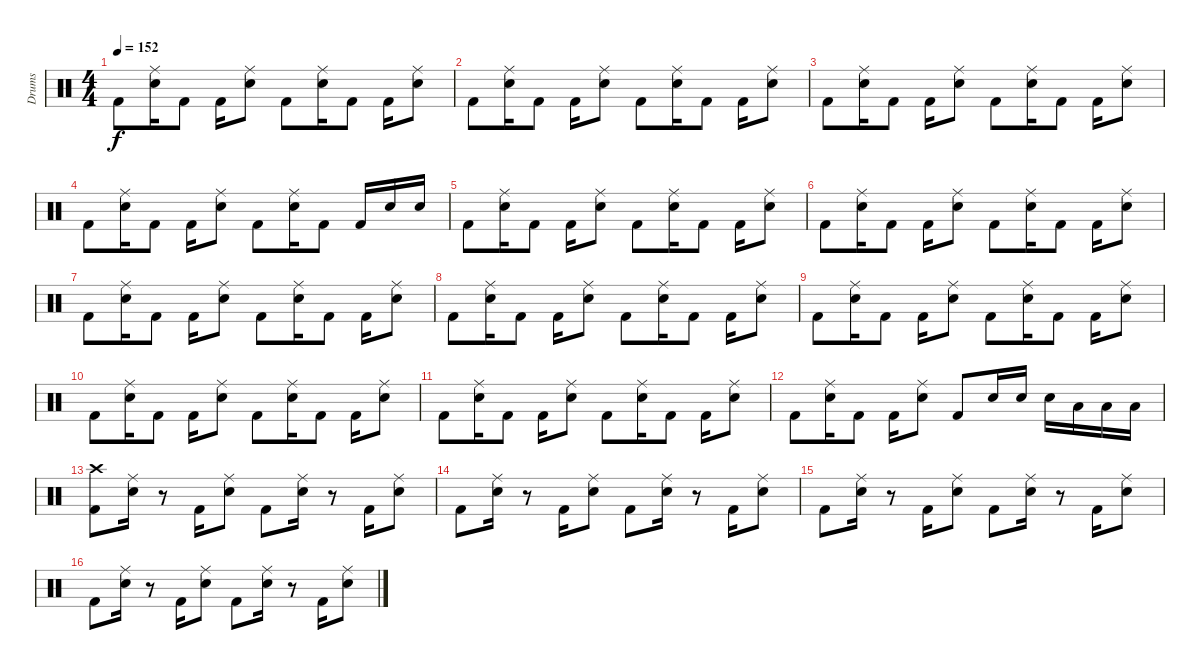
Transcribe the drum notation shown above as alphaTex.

\track ("Drums" "Drums") {instrument percussion}
\staff {score}
\articulation defaults
\ts (4 4)
\tempo 152
\clef neutral
\ks c "Kick (hit) 2".8{dy f}
("Ride (middle)" "Snare (hit) 2").16 "Kick (hit) 2".8 "Kick (hit) 2".16 ("Ride (middle)" "Snare (hit) 2").8 "Kick (hit) 2".8 ("Ride (middle)" "Snare (hit) 2").16 "Kick (hit) 2".8 "Kick (hit) 2".16 ("Ride (middle)" "Snare (hit) 2").8 |
"Kick (hit) 2".8 ("Ride (middle)" "Snare (hit) 2").16 "Kick (hit) 2".8 "Kick (hit) 2".16 ("Ride (middle)" "Snare (hit) 2").8 "Kick (hit) 2".8 ("Ride (middle)" "Snare (hit) 2").16 "Kick (hit) 2".8 "Kick (hit) 2".16 ("Ride (middle)" "Snare (hit) 2").8 |
"Kick (hit) 2".8 ("Ride (middle)" "Snare (hit) 2").16 "Kick (hit) 2".8 "Kick (hit) 2".16 ("Ride (middle)" "Snare (hit) 2").8 "Kick (hit) 2".8 ("Ride (middle)" "Snare (hit) 2").16 "Kick (hit) 2".8 "Kick (hit) 2".16 ("Ride (middle)" "Snare (hit) 2").8 |
"Kick (hit) 2".8 ("Ride (middle)" "Snare (hit) 2").16 "Kick (hit) 2".8 "Kick (hit) 2".16 ("Ride (middle)" "Snare (hit) 2").8 "Kick (hit) 2".8 ("Ride (middle)" "Snare (hit) 2").16 "Kick (hit) 2".8 "Kick (hit) 2".16 "Snare (hit) 2".16 "Snare (hit) 2".16 |
"Kick (hit) 2".8 ("Ride (middle)" "Snare (hit) 2").16 "Kick (hit) 2".8 "Kick (hit) 2".16 ("Ride (middle)" "Snare (hit) 2").8 "Kick (hit) 2".8 ("Ride (middle)" "Snare (hit) 2").16 "Kick (hit) 2".8 "Kick (hit) 2".16 ("Ride (middle)" "Snare (hit) 2").8 |
"Kick (hit) 2".8 ("Ride (middle)" "Snare (hit) 2").16 "Kick (hit) 2".8 "Kick (hit) 2".16 ("Ride (middle)" "Snare (hit) 2").8 "Kick (hit) 2".8 ("Ride (middle)" "Snare (hit) 2").16 "Kick (hit) 2".8 "Kick (hit) 2".16 ("Ride (middle)" "Snare (hit) 2").8 |
"Kick (hit) 2".8 ("Ride (middle)" "Snare (hit) 2").16 "Kick (hit) 2".8 "Kick (hit) 2".16 ("Ride (middle)" "Snare (hit) 2").8 "Kick (hit) 2".8 ("Ride (middle)" "Snare (hit) 2").16 "Kick (hit) 2".8 "Kick (hit) 2".16 ("Ride (middle)" "Snare (hit) 2").8 |
"Kick (hit) 2".8 ("Ride (middle)" "Snare (hit) 2").16 "Kick (hit) 2".8 "Kick (hit) 2".16 ("Ride (middle)" "Snare (hit) 2").8 "Kick (hit) 2".8 ("Ride (middle)" "Snare (hit) 2").16 "Kick (hit) 2".8 "Kick (hit) 2".16 ("Ride (middle)" "Snare (hit) 2").8 |
"Kick (hit) 2".8 ("Ride (middle)" "Snare (hit) 2").16 "Kick (hit) 2".8 "Kick (hit) 2".16 ("Ride (middle)" "Snare (hit) 2").8 "Kick (hit) 2".8 ("Ride (middle)" "Snare (hit) 2").16 "Kick (hit) 2".8 "Kick (hit) 2".16 ("Ride (middle)" "Snare (hit) 2").8 |
"Kick (hit) 2".8 ("Ride (middle)" "Snare (hit) 2").16 "Kick (hit) 2".8 "Kick (hit) 2".16 ("Ride (middle)" "Snare (hit) 2").8 "Kick (hit) 2".8 ("Ride (middle)" "Snare (hit) 2").16 "Kick (hit) 2".8 "Kick (hit) 2".16 ("Ride (middle)" "Snare (hit) 2").8 |
"Kick (hit) 2".8 ("Ride (middle)" "Snare (hit) 2").16 "Kick (hit) 2".8 "Kick (hit) 2".16 ("Ride (middle)" "Snare (hit) 2").8 "Kick (hit) 2".8 ("Ride (middle)" "Snare (hit) 2").16 "Kick (hit) 2".8 "Kick (hit) 2".16 ("Ride (middle)" "Snare (hit) 2").8 |
"Kick (hit) 2".8 ("Ride (middle)" "Snare (hit) 2").16 "Kick (hit) 2".8 "Kick (hit) 2".16 ("Ride (middle)" "Snare (hit) 2").8 "Kick (hit) 2".8 "Snare (hit) 2".16 "Snare (hit) 2".16 "Snare (hit) 2".16 "Low Tom (hit)".16 "Low Tom (hit)".16 "Low Tom (hit)".16 |
("Crash high (hit)" "Kick (hit) 2").8 ("Ride (middle)" "Snare (hit) 2").16 r.8 "Kick (hit) 2".16 ("Ride (middle)" "Snare (hit) 2").8 "Kick (hit) 2".8 ("Ride (middle)" "Snare (hit) 2").16 r.8 "Kick (hit) 2".16 ("Ride (middle)" "Snare (hit) 2").8 |
"Kick (hit) 2".8 ("Ride (middle)" "Snare (hit) 2").16 r.8 "Kick (hit) 2".16 ("Ride (middle)" "Snare (hit) 2").8 "Kick (hit) 2".8 ("Ride (middle)" "Snare (hit) 2").16 r.8 "Kick (hit) 2".16 ("Ride (middle)" "Snare (hit) 2").8 |
"Kick (hit) 2".8 ("Ride (middle)" "Snare (hit) 2").16 r.8 "Kick (hit) 2".16 ("Ride (middle)" "Snare (hit) 2").8 "Kick (hit) 2".8 ("Ride (middle)" "Snare (hit) 2").16 r.8 "Kick (hit) 2".16 ("Ride (middle)" "Snare (hit) 2").8 |
"Kick (hit) 2".8 ("Ride (middle)" "Snare (hit) 2").16 r.8 "Kick (hit) 2".16 ("Ride (middle)" "Snare (hit) 2").8 "Kick (hit) 2".8 ("Ride (middle)" "Snare (hit) 2").16 r.8 "Kick (hit) 2".16 ("Ride (middle)" "Snare (hit) 2").8
